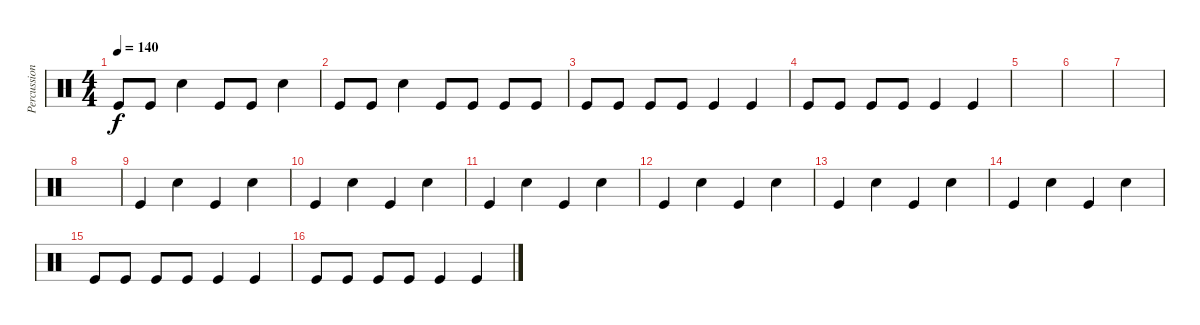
\track ("Percussion" "Percussion") {instrument percussion}
\staff {score}
\articulation defaults
\ts (4 4)
\tempo 140
\clef neutral
\ks c "Kick (hit)".8{dy f} "Kick (hit)".8 "Snare (hit) 2".4 "Kick (hit)".8 "Kick (hit)".8 "Snare (hit) 2".4
|
"Kick (hit)".8 "Kick (hit)".8 "Snare (hit) 2".4 "Kick (hit)".8 "Kick (hit)".8 "Kick (hit)".8 "Kick (hit)".8 |
"Kick (hit)".8 "Kick (hit)".8 "Kick (hit)".8 "Kick (hit)".8 "Kick (hit)".4 "Kick (hit)".4 |
"Kick (hit)".8 "Kick (hit)".8 "Kick (hit)".8 "Kick (hit)".8 "Kick (hit)".4 "Kick (hit)".4 |
|
|
|
|
"Kick (hit)".4 "Snare (hit) 2".4 "Kick (hit)".4 "Snare (hit) 2".4 |
"Kick (hit)".4 "Snare (hit) 2".4 "Kick (hit)".4 "Snare (hit) 2".4 |
"Kick (hit)".4 "Snare (hit) 2".4 "Kick (hit)".4 "Snare (hit) 2".4 |
"Kick (hit)".4 "Snare (hit) 2".4 "Kick (hit)".4 "Snare (hit) 2".4 |
"Kick (hit)".4 "Snare (hit) 2".4 "Kick (hit)".4 "Snare (hit) 2".4 |
"Kick (hit)".4 "Snare (hit) 2".4 "Kick (hit)".4 "Snare (hit) 2".4 |
"Kick (hit)".8 "Kick (hit)".8 "Kick (hit)".8 "Kick (hit)".8 "Kick (hit)".4 "Kick (hit)".4 |
"Kick (hit)".8 "Kick (hit)".8 "Kick (hit)".8 "Kick (hit)".8 "Kick (hit)".4 "Kick (hit)".4
